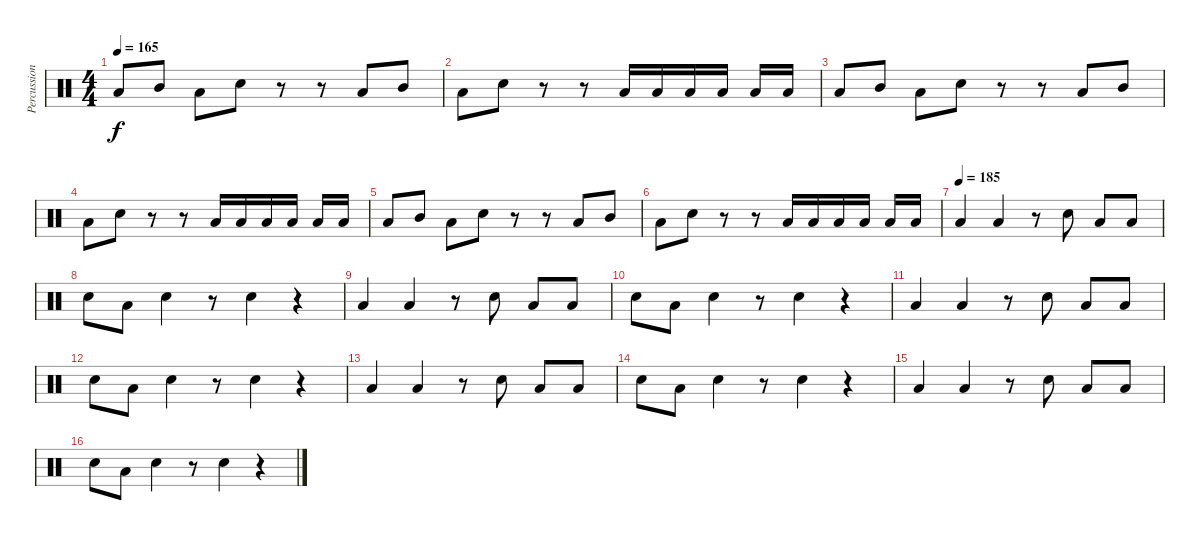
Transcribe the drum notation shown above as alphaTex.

\track ("Percussion" "Percussion") {instrument percussion}
\staff {score}
\articulation defaults
\ts (4 4)
\tempo 165
\clef neutral
\ks c "Low Tom (hit)".8{dy f} "Mid Tom (hit)".8 "Low Tom (hit)".8 "Electric Snare (hit)".8
r.8 r.8 "Low Tom (hit)".8 "Mid Tom (hit)".8 |
"Low Tom (hit)".8 "Electric Snare (hit)".8 r.8 r.8 "Low Tom (hit)".16 "Low Tom (hit)".16 "Low Tom (hit)".16 "Low Tom (hit)".16 "Low Tom (hit)".16 "Low Tom (hit)".16 |
"Low Tom (hit)".8 "Mid Tom (hit)".8 "Low Tom (hit)".8 "Electric Snare (hit)".8 r.8 r.8 "Low Tom (hit)".8 "Mid Tom (hit)".8 |
"Low Tom (hit)".8 "Electric Snare (hit)".8 r.8 r.8 "Low Tom (hit)".16 "Low Tom (hit)".16 "Low Tom (hit)".16 "Low Tom (hit)".16 "Low Tom (hit)".16 "Low Tom (hit)".16 |
"Low Tom (hit)".8 "Mid Tom (hit)".8 "Low Tom (hit)".8 "Electric Snare (hit)".8 r.8 r.8 "Low Tom (hit)".8 "Mid Tom (hit)".8 |
"Low Tom (hit)".8 "Electric Snare (hit)".8 r.8 r.8 "Low Tom (hit)".16 "Low Tom (hit)".16 "Low Tom (hit)".16 "Low Tom (hit)".16 "Low Tom (hit)".16 "Low Tom (hit)".16 |
\tempo (185)
"Low Tom (hit)".4 "Low Tom (hit)".4 r.8 "Electric Snare (hit)".8 "Low Tom (hit)".8 "Low Tom (hit)".8 |
"Electric Snare (hit)".8 "Low Tom (hit)".8 "Electric Snare (hit)".4 r.8 "Electric Snare (hit)".4 r.4 |
"Low Tom (hit)".4 "Low Tom (hit)".4 r.8 "Electric Snare (hit)".8 "Low Tom (hit)".8 "Low Tom (hit)".8 |
"Electric Snare (hit)".8 "Low Tom (hit)".8 "Electric Snare (hit)".4 r.8 "Electric Snare (hit)".4 r.4 |
"Low Tom (hit)".4 "Low Tom (hit)".4 r.8 "Electric Snare (hit)".8 "Low Tom (hit)".8 "Low Tom (hit)".8 |
"Electric Snare (hit)".8 "Low Tom (hit)".8 "Electric Snare (hit)".4 r.8 "Electric Snare (hit)".4 r.4 |
"Low Tom (hit)".4 "Low Tom (hit)".4 r.8 "Electric Snare (hit)".8 "Low Tom (hit)".8 "Low Tom (hit)".8 |
"Electric Snare (hit)".8 "Low Tom (hit)".8 "Electric Snare (hit)".4 r.8 "Electric Snare (hit)".4 r.4 |
"Low Tom (hit)".4 "Low Tom (hit)".4 r.8 "Electric Snare (hit)".8 "Low Tom (hit)".8 "Low Tom (hit)".8 |
"Electric Snare (hit)".8 "Low Tom (hit)".8 "Electric Snare (hit)".4 r.8 "Electric Snare (hit)".4 r.4
